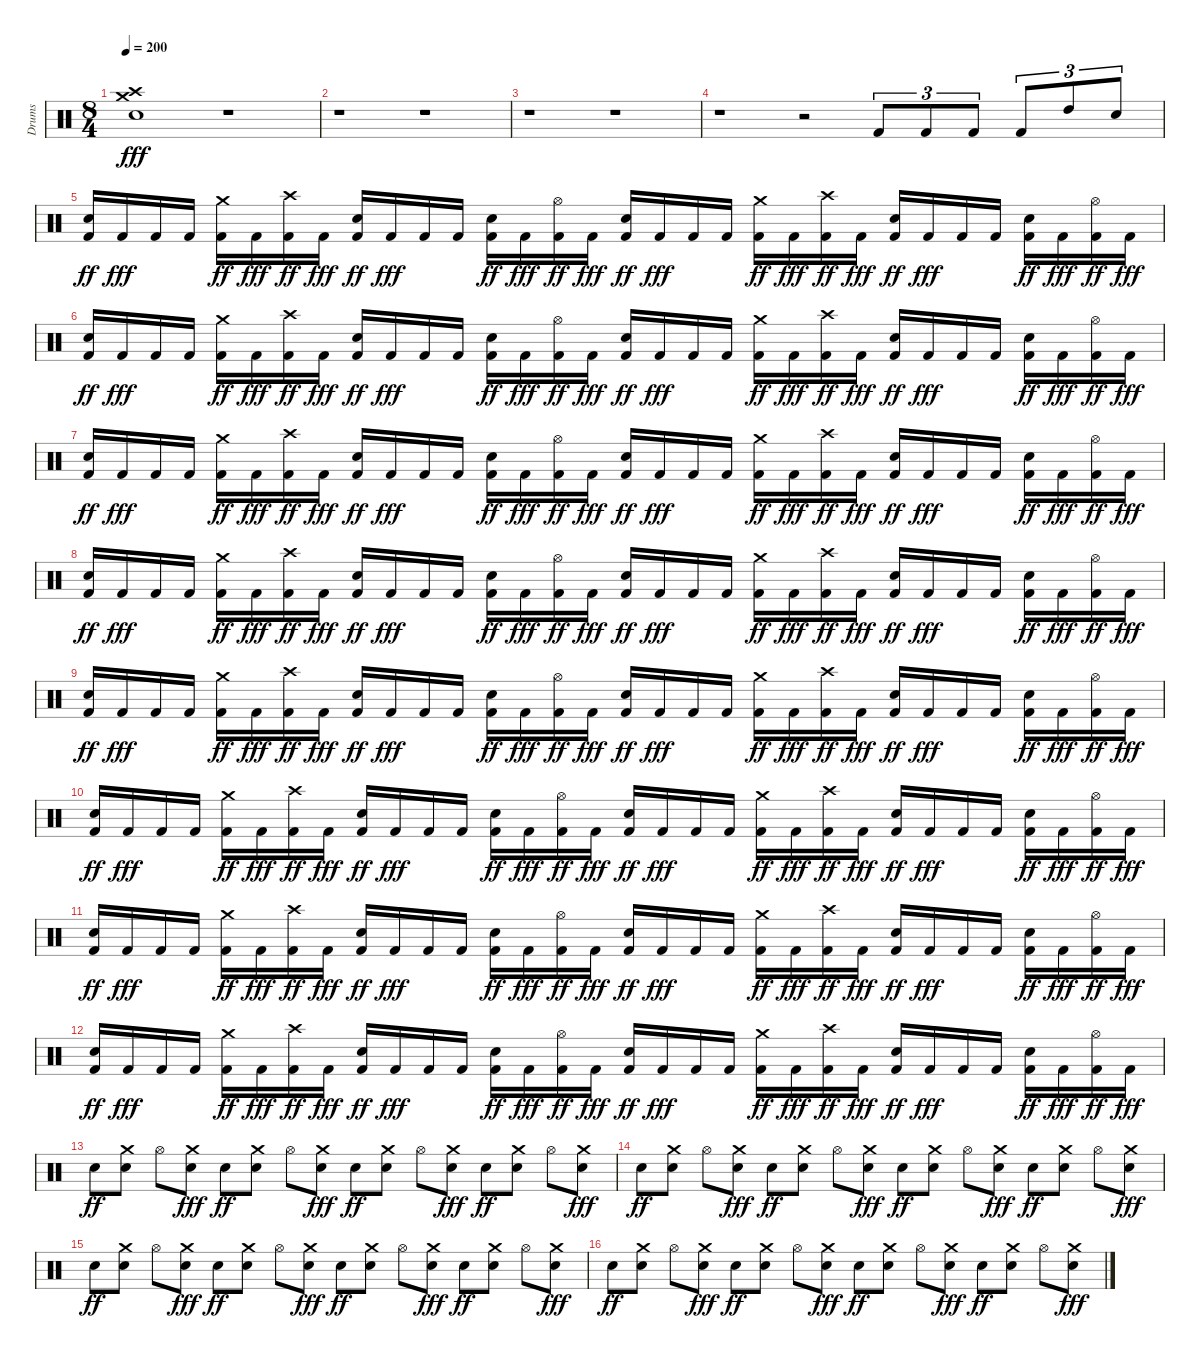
\track ("Drums" "Drums") {instrument percussion}
\staff {score}
\articulation defaults
\ts (8 4)
\tempo 200
\clef neutral
\ks c
("Electric Snare (hit)" "Crash medium (hit)" "Crash high (hit)").1{dy fff} r.1 |
r.1 r.1 |
r.1 r.1 |
r.1 r.2 "Kick (hit) 2".8{tu (3 2)} "Kick (hit) 2".8{tu (3 2)} "Kick (hit) 2".8{tu (3 2)} "Kick (hit) 2".8{tu (3 2)} "High Tom (hit)".8{tu (3 2)} "Electric Snare (hit)".8{tu (3 2)} |
("Kick (hit) 2" "Electric Snare (hit)").16{dy ff} "Kick (hit) 2".16{dy fff} "Kick (hit) 2".16 "Kick (hit) 2".16 ("Kick (hit) 2" "Crash medium (hit)").16{dy ff} "Kick (hit) 2".16{dy fff} ("Kick (hit) 2" "Crash high (hit)").16{dy ff} "Kick (hit) 2".16{dy fff} ("Kick (hit) 2" "Electric Snare (hit)").16{dy ff} "Kick (hit) 2".16{dy fff} "Kick (hit) 2".16 "Kick (hit) 2".16 ("Kick (hit) 2" "Electric Snare (hit)").16{dy ff} "Kick (hit) 2".16{dy fff} ("Kick (hit) 2" "Hi-Hat (open)").16{dy ff} "Kick (hit) 2".16{dy fff} ("Kick (hit) 2" "Electric Snare (hit)").16{dy ff} "Kick (hit) 2".16{dy fff} "Kick (hit) 2".16 "Kick (hit) 2".16 ("Kick (hit) 2" "Crash medium (hit)").16{dy ff} "Kick (hit) 2".16{dy fff} ("Kick (hit) 2" "Crash high (hit)").16{dy ff} "Kick (hit) 2".16{dy fff} ("Kick (hit) 2" "Electric Snare (hit)").16{dy ff} "Kick (hit) 2".16{dy fff} "Kick (hit) 2".16 "Kick (hit) 2".16 ("Kick (hit) 2" "Electric Snare (hit)").16{dy ff} "Kick (hit) 2".16{dy fff} ("Kick (hit) 2" "Hi-Hat (open)").16{dy ff} "Kick (hit) 2".16{dy fff} |
("Kick (hit) 2" "Electric Snare (hit)").16{dy ff} "Kick (hit) 2".16{dy fff} "Kick (hit) 2".16 "Kick (hit) 2".16 ("Kick (hit) 2" "Crash medium (hit)").16{dy ff} "Kick (hit) 2".16{dy fff} ("Kick (hit) 2" "Crash high (hit)").16{dy ff} "Kick (hit) 2".16{dy fff} ("Kick (hit) 2" "Electric Snare (hit)").16{dy ff} "Kick (hit) 2".16{dy fff} "Kick (hit) 2".16 "Kick (hit) 2".16 ("Kick (hit) 2" "Electric Snare (hit)").16{dy ff} "Kick (hit) 2".16{dy fff} ("Kick (hit) 2" "Hi-Hat (open)").16{dy ff} "Kick (hit) 2".16{dy fff} ("Kick (hit) 2" "Electric Snare (hit)").16{dy ff} "Kick (hit) 2".16{dy fff} "Kick (hit) 2".16 "Kick (hit) 2".16 ("Kick (hit) 2" "Crash medium (hit)").16{dy ff} "Kick (hit) 2".16{dy fff} ("Kick (hit) 2" "Crash high (hit)").16{dy ff} "Kick (hit) 2".16{dy fff} ("Kick (hit) 2" "Electric Snare (hit)").16{dy ff} "Kick (hit) 2".16{dy fff} "Kick (hit) 2".16 "Kick (hit) 2".16 ("Kick (hit) 2" "Electric Snare (hit)").16{dy ff} "Kick (hit) 2".16{dy fff} ("Kick (hit) 2" "Hi-Hat (open)").16{dy ff} "Kick (hit) 2".16{dy fff} |
("Kick (hit) 2" "Electric Snare (hit)").16{dy ff} "Kick (hit) 2".16{dy fff} "Kick (hit) 2".16 "Kick (hit) 2".16 ("Kick (hit) 2" "Crash medium (hit)").16{dy ff} "Kick (hit) 2".16{dy fff} ("Kick (hit) 2" "Crash high (hit)").16{dy ff} "Kick (hit) 2".16{dy fff} ("Kick (hit) 2" "Electric Snare (hit)").16{dy ff} "Kick (hit) 2".16{dy fff} "Kick (hit) 2".16 "Kick (hit) 2".16 ("Kick (hit) 2" "Electric Snare (hit)").16{dy ff} "Kick (hit) 2".16{dy fff} ("Kick (hit) 2" "Hi-Hat (open)").16{dy ff} "Kick (hit) 2".16{dy fff} ("Kick (hit) 2" "Electric Snare (hit)").16{dy ff} "Kick (hit) 2".16{dy fff} "Kick (hit) 2".16 "Kick (hit) 2".16 ("Kick (hit) 2" "Crash medium (hit)").16{dy ff} "Kick (hit) 2".16{dy fff} ("Kick (hit) 2" "Crash high (hit)").16{dy ff} "Kick (hit) 2".16{dy fff} ("Kick (hit) 2" "Electric Snare (hit)").16{dy ff} "Kick (hit) 2".16{dy fff} "Kick (hit) 2".16 "Kick (hit) 2".16 ("Kick (hit) 2" "Electric Snare (hit)").16{dy ff} "Kick (hit) 2".16{dy fff} ("Kick (hit) 2" "Hi-Hat (open)").16{dy ff} "Kick (hit) 2".16{dy fff} |
("Kick (hit) 2" "Electric Snare (hit)").16{dy ff} "Kick (hit) 2".16{dy fff} "Kick (hit) 2".16 "Kick (hit) 2".16 ("Kick (hit) 2" "Crash medium (hit)").16{dy ff} "Kick (hit) 2".16{dy fff} ("Kick (hit) 2" "Crash high (hit)").16{dy ff} "Kick (hit) 2".16{dy fff} ("Kick (hit) 2" "Electric Snare (hit)").16{dy ff} "Kick (hit) 2".16{dy fff} "Kick (hit) 2".16 "Kick (hit) 2".16 ("Kick (hit) 2" "Electric Snare (hit)").16{dy ff} "Kick (hit) 2".16{dy fff} ("Kick (hit) 2" "Hi-Hat (open)").16{dy ff} "Kick (hit) 2".16{dy fff} ("Kick (hit) 2" "Electric Snare (hit)").16{dy ff} "Kick (hit) 2".16{dy fff} "Kick (hit) 2".16 "Kick (hit) 2".16 ("Kick (hit) 2" "Crash medium (hit)").16{dy ff} "Kick (hit) 2".16{dy fff} ("Kick (hit) 2" "Crash high (hit)").16{dy ff} "Kick (hit) 2".16{dy fff} ("Kick (hit) 2" "Electric Snare (hit)").16{dy ff} "Kick (hit) 2".16{dy fff} "Kick (hit) 2".16 "Kick (hit) 2".16 ("Kick (hit) 2" "Electric Snare (hit)").16{dy ff} "Kick (hit) 2".16{dy fff} ("Kick (hit) 2" "Hi-Hat (open)").16{dy ff} "Kick (hit) 2".16{dy fff} |
("Kick (hit) 2" "Electric Snare (hit)").16{dy ff} "Kick (hit) 2".16{dy fff} "Kick (hit) 2".16 "Kick (hit) 2".16 ("Kick (hit) 2" "Crash medium (hit)").16{dy ff} "Kick (hit) 2".16{dy fff} ("Kick (hit) 2" "Crash high (hit)").16{dy ff} "Kick (hit) 2".16{dy fff} ("Kick (hit) 2" "Electric Snare (hit)").16{dy ff} "Kick (hit) 2".16{dy fff} "Kick (hit) 2".16 "Kick (hit) 2".16 ("Kick (hit) 2" "Electric Snare (hit)").16{dy ff} "Kick (hit) 2".16{dy fff} ("Kick (hit) 2" "Hi-Hat (open)").16{dy ff} "Kick (hit) 2".16{dy fff} ("Kick (hit) 2" "Electric Snare (hit)").16{dy ff} "Kick (hit) 2".16{dy fff} "Kick (hit) 2".16 "Kick (hit) 2".16 ("Kick (hit) 2" "Crash medium (hit)").16{dy ff} "Kick (hit) 2".16{dy fff} ("Kick (hit) 2" "Crash high (hit)").16{dy ff} "Kick (hit) 2".16{dy fff} ("Kick (hit) 2" "Electric Snare (hit)").16{dy ff} "Kick (hit) 2".16{dy fff} "Kick (hit) 2".16 "Kick (hit) 2".16 ("Kick (hit) 2" "Electric Snare (hit)").16{dy ff} "Kick (hit) 2".16{dy fff} ("Kick (hit) 2" "Hi-Hat (open)").16{dy ff} "Kick (hit) 2".16{dy fff} |
("Kick (hit) 2" "Electric Snare (hit)").16{dy ff} "Kick (hit) 2".16{dy fff} "Kick (hit) 2".16 "Kick (hit) 2".16 ("Kick (hit) 2" "Crash medium (hit)").16{dy ff} "Kick (hit) 2".16{dy fff} ("Kick (hit) 2" "Crash high (hit)").16{dy ff} "Kick (hit) 2".16{dy fff} ("Kick (hit) 2" "Electric Snare (hit)").16{dy ff} "Kick (hit) 2".16{dy fff} "Kick (hit) 2".16 "Kick (hit) 2".16 ("Kick (hit) 2" "Electric Snare (hit)").16{dy ff} "Kick (hit) 2".16{dy fff} ("Kick (hit) 2" "Hi-Hat (open)").16{dy ff} "Kick (hit) 2".16{dy fff} ("Kick (hit) 2" "Electric Snare (hit)").16{dy ff} "Kick (hit) 2".16{dy fff} "Kick (hit) 2".16 "Kick (hit) 2".16 ("Kick (hit) 2" "Crash medium (hit)").16{dy ff} "Kick (hit) 2".16{dy fff} ("Kick (hit) 2" "Crash high (hit)").16{dy ff} "Kick (hit) 2".16{dy fff} ("Kick (hit) 2" "Electric Snare (hit)").16{dy ff} "Kick (hit) 2".16{dy fff} "Kick (hit) 2".16 "Kick (hit) 2".16 ("Kick (hit) 2" "Electric Snare (hit)").16{dy ff} "Kick (hit) 2".16{dy fff} ("Kick (hit) 2" "Hi-Hat (open)").16{dy ff} "Kick (hit) 2".16{dy fff} |
("Kick (hit) 2" "Electric Snare (hit)").16{dy ff} "Kick (hit) 2".16{dy fff} "Kick (hit) 2".16 "Kick (hit) 2".16 ("Kick (hit) 2" "Crash medium (hit)").16{dy ff} "Kick (hit) 2".16{dy fff} ("Kick (hit) 2" "Crash high (hit)").16{dy ff} "Kick (hit) 2".16{dy fff} ("Kick (hit) 2" "Electric Snare (hit)").16{dy ff} "Kick (hit) 2".16{dy fff} "Kick (hit) 2".16 "Kick (hit) 2".16 ("Kick (hit) 2" "Electric Snare (hit)").16{dy ff} "Kick (hit) 2".16{dy fff} ("Kick (hit) 2" "Hi-Hat (open)").16{dy ff} "Kick (hit) 2".16{dy fff} ("Kick (hit) 2" "Electric Snare (hit)").16{dy ff} "Kick (hit) 2".16{dy fff} "Kick (hit) 2".16 "Kick (hit) 2".16 ("Kick (hit) 2" "Crash medium (hit)").16{dy ff} "Kick (hit) 2".16{dy fff} ("Kick (hit) 2" "Crash high (hit)").16{dy ff} "Kick (hit) 2".16{dy fff} ("Kick (hit) 2" "Electric Snare (hit)").16{dy ff} "Kick (hit) 2".16{dy fff} "Kick (hit) 2".16 "Kick (hit) 2".16 ("Kick (hit) 2" "Electric Snare (hit)").16{dy ff} "Kick (hit) 2".16{dy fff} ("Kick (hit) 2" "Hi-Hat (open)").16{dy ff} "Kick (hit) 2".16{dy fff} |
("Kick (hit) 2" "Electric Snare (hit)").16{dy ff} "Kick (hit) 2".16{dy fff} "Kick (hit) 2".16 "Kick (hit) 2".16 ("Kick (hit) 2" "Crash medium (hit)").16{dy ff} "Kick (hit) 2".16{dy fff} ("Kick (hit) 2" "Crash high (hit)").16{dy ff} "Kick (hit) 2".16{dy fff} ("Kick (hit) 2" "Electric Snare (hit)").16{dy ff} "Kick (hit) 2".16{dy fff} "Kick (hit) 2".16 "Kick (hit) 2".16 ("Kick (hit) 2" "Electric Snare (hit)").16{dy ff} "Kick (hit) 2".16{dy fff} ("Kick (hit) 2" "Hi-Hat (open)").16{dy ff} "Kick (hit) 2".16{dy fff} ("Kick (hit) 2" "Electric Snare (hit)").16{dy ff} "Kick (hit) 2".16{dy fff} "Kick (hit) 2".16 "Kick (hit) 2".16 ("Kick (hit) 2" "Crash medium (hit)").16{dy ff} "Kick (hit) 2".16{dy fff} ("Kick (hit) 2" "Crash high (hit)").16{dy ff} "Kick (hit) 2".16{dy fff} ("Kick (hit) 2" "Electric Snare (hit)").16{dy ff} "Kick (hit) 2".16{dy fff} "Kick (hit) 2".16 "Kick (hit) 2".16 ("Kick (hit) 2" "Electric Snare (hit)").16{dy ff} "Kick (hit) 2".16{dy fff} ("Kick (hit) 2" "Hi-Hat (open)").16{dy ff} "Kick (hit) 2".16{dy fff} |
"Electric Snare (hit)".8{dy ff} ("Crash medium (hit)" "Electric Snare (hit)").8 "Hi-Hat (open)".8 ("Electric Snare (hit)" "Crash medium (hit)").8{dy fff} "Electric Snare (hit)".8{dy ff} ("Crash medium (hit)" "Electric Snare (hit)").8 "Hi-Hat (open)".8 ("Electric Snare (hit)" "Crash medium (hit)").8{dy fff} "Electric Snare (hit)".8{dy ff} ("Crash medium (hit)" "Electric Snare (hit)").8 "Hi-Hat (open)".8 ("Electric Snare (hit)" "Crash medium (hit)").8{dy fff} "Electric Snare (hit)".8{dy ff} ("Crash medium (hit)" "Electric Snare (hit)").8 "Hi-Hat (open)".8 ("Electric Snare (hit)" "Crash medium (hit)").8{dy fff} |
"Electric Snare (hit)".8{dy ff} ("Crash medium (hit)" "Electric Snare (hit)").8 "Hi-Hat (open)".8 ("Electric Snare (hit)" "Crash medium (hit)").8{dy fff} "Electric Snare (hit)".8{dy ff} ("Crash medium (hit)" "Electric Snare (hit)").8 "Hi-Hat (open)".8 ("Electric Snare (hit)" "Crash medium (hit)").8{dy fff} "Electric Snare (hit)".8{dy ff} ("Crash medium (hit)" "Electric Snare (hit)").8 "Hi-Hat (open)".8 ("Electric Snare (hit)" "Crash medium (hit)").8{dy fff} "Electric Snare (hit)".8{dy ff} ("Crash medium (hit)" "Electric Snare (hit)").8 "Hi-Hat (open)".8 ("Electric Snare (hit)" "Crash medium (hit)").8{dy fff} |
"Electric Snare (hit)".8{dy ff} ("Crash medium (hit)" "Electric Snare (hit)").8 "Hi-Hat (open)".8 ("Electric Snare (hit)" "Crash medium (hit)").8{dy fff} "Electric Snare (hit)".8{dy ff} ("Crash medium (hit)" "Electric Snare (hit)").8 "Hi-Hat (open)".8 ("Electric Snare (hit)" "Crash medium (hit)").8{dy fff} "Electric Snare (hit)".8{dy ff} ("Crash medium (hit)" "Electric Snare (hit)").8 "Hi-Hat (open)".8 ("Electric Snare (hit)" "Crash medium (hit)").8{dy fff} "Electric Snare (hit)".8{dy ff} ("Crash medium (hit)" "Electric Snare (hit)").8 "Hi-Hat (open)".8 ("Electric Snare (hit)" "Crash medium (hit)").8{dy fff} |
"Electric Snare (hit)".8{dy ff} ("Crash medium (hit)" "Electric Snare (hit)").8 "Hi-Hat (open)".8 ("Electric Snare (hit)" "Crash medium (hit)").8{dy fff} "Electric Snare (hit)".8{dy ff} ("Crash medium (hit)" "Electric Snare (hit)").8 "Hi-Hat (open)".8 ("Electric Snare (hit)" "Crash medium (hit)").8{dy fff} "Electric Snare (hit)".8{dy ff} ("Crash medium (hit)" "Electric Snare (hit)").8 "Hi-Hat (open)".8 ("Electric Snare (hit)" "Crash medium (hit)").8{dy fff} "Electric Snare (hit)".8{dy ff} ("Crash medium (hit)" "Electric Snare (hit)").8 "Hi-Hat (open)".8 ("Electric Snare (hit)" "Crash medium (hit)").8{dy fff}
